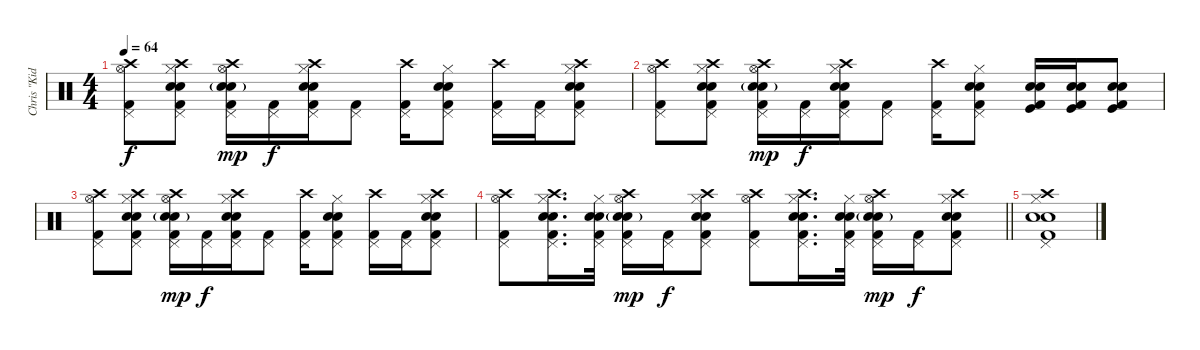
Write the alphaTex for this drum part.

\track ("Chris \"Kid\" Knapp" "Chris \"Kid") {instrument percussion}
\staff {score}
\articulation defaults
\ts (4 4)
\tempo 64
\clef neutral
\ks c
("Hi-Hat (open)" "Kick (hit) 2" "Pedal Hi-Hat (hit)" "Crash high (hit)").8{dy f} ("Snare (hit) 2" "Snare (hit) 2" "Hi-Hat (closed)" "Kick (hit) 2" "Pedal Hi-Hat (hit)" "Crash high (hit)").8 ("Snare (hit) 2"{g} "Snare (hit) 2"{g} "Hi-Hat (open)" "Kick (hit) 2" "Pedal Hi-Hat (hit)" "Crash high (hit)").16{dy mp} ("Kick (hit) 2" "Pedal Hi-Hat (hit)").16{dy f} ("Snare (hit) 2" "Snare (hit) 2" "Hi-Hat (closed)" "Kick (hit) 2" "Pedal Hi-Hat (hit)" "Crash high (hit)").16 ("Kick (hit) 2" "Pedal Hi-Hat (hit)").8 ("Kick (hit) 2" "Pedal Hi-Hat (hit)" "Crash high (hit)").16 ("Snare (hit) 2" "Snare (hit) 2" "Hi-Hat (closed)" "Kick (hit) 2" "Pedal Hi-Hat (hit)").8 ("Kick (hit) 2" "Pedal Hi-Hat (hit)" "Crash high (hit)").16 ("Kick (hit) 2" "Pedal Hi-Hat (hit)").16 ("Snare (hit) 2" "Snare (hit) 2" "Hi-Hat (closed)" "Kick (hit) 2" "Pedal Hi-Hat (hit)" "Crash high (hit)").8 |
("Hi-Hat (open)" "Kick (hit) 2" "Pedal Hi-Hat (hit)" "Crash high (hit)").8 ("Snare (hit) 2" "Snare (hit) 2" "Hi-Hat (closed)" "Kick (hit) 2" "Pedal Hi-Hat (hit)" "Crash high (hit)").8 ("Snare (hit) 2"{g} "Snare (hit) 2"{g} "Hi-Hat (open)" "Kick (hit) 2" "Pedal Hi-Hat (hit)" "Crash high (hit)").16{dy mp} ("Kick (hit) 2" "Pedal Hi-Hat (hit)").16{dy f} ("Snare (hit) 2" "Snare (hit) 2" "Hi-Hat (closed)" "Kick (hit) 2" "Pedal Hi-Hat (hit)" "Crash high (hit)").16 ("Kick (hit) 2" "Pedal Hi-Hat (hit)").8 ("Kick (hit) 2" "Pedal Hi-Hat (hit)" "Crash high (hit)").16 ("Snare (hit) 2" "Snare (hit) 2" "Hi-Hat (closed)" "Kick (hit) 2" "Pedal Hi-Hat (hit)").8 ("Snare (hit) 2" "Snare (hit) 2" "Kick (hit) 2" "Kick (hit)").16 ("Electric Snare (hit)" "Electric Snare (hit)" "Kick (hit) 2" "Kick (hit)").16 ("Snare (hit) 2" "Snare (hit) 2" "Kick (hit) 2" "Kick (hit)").8 |
("Hi-Hat (open)" "Kick (hit) 2" "Pedal Hi-Hat (hit)" "Crash high (hit)").8 ("Snare (hit) 2" "Snare (hit) 2" "Hi-Hat (closed)" "Kick (hit) 2" "Pedal Hi-Hat (hit)" "Crash high (hit)").8 ("Snare (hit) 2"{g} "Snare (hit) 2"{g} "Hi-Hat (open)" "Kick (hit) 2" "Pedal Hi-Hat (hit)" "Crash high (hit)").16{dy mp} ("Kick (hit) 2" "Pedal Hi-Hat (hit)").16{dy f} ("Snare (hit) 2" "Snare (hit) 2" "Hi-Hat (closed)" "Kick (hit) 2" "Pedal Hi-Hat (hit)" "Crash high (hit)").16 ("Kick (hit) 2" "Pedal Hi-Hat (hit)").8 ("Kick (hit) 2" "Pedal Hi-Hat (hit)" "Crash high (hit)").16 ("Snare (hit) 2" "Snare (hit) 2" "Hi-Hat (closed)" "Kick (hit) 2" "Pedal Hi-Hat (hit)").8 ("Kick (hit) 2" "Pedal Hi-Hat (hit)" "Crash high (hit)").16 ("Kick (hit) 2" "Pedal Hi-Hat (hit)").16 ("Snare (hit) 2" "Snare (hit) 2" "Hi-Hat (closed)" "Kick (hit) 2" "Pedal Hi-Hat (hit)" "Crash high (hit)").8 |
\barLineRight lightlight
("Hi-Hat (open)" "Kick (hit) 2" "Pedal Hi-Hat (hit)" "Crash high (hit)").8 ("Snare (hit) 2" "Snare (hit) 2" "Hi-Hat (closed)" "Kick (hit) 2" "Pedal Hi-Hat (hit)" "Crash high (hit)").16{d} ("Snare (hit) 2" "Snare (hit) 2" "Hi-Hat (closed)" "Kick (hit) 2" "Pedal Hi-Hat (hit)").32 ("Snare (hit) 2"{g} "Snare (hit) 2"{g} "Hi-Hat (open)" "Kick (hit) 2" "Pedal Hi-Hat (hit)" "Crash high (hit)").16{dy mp} ("Kick (hit) 2" "Pedal Hi-Hat (hit)").16{dy f} ("Snare (hit) 2" "Snare (hit) 2" "Hi-Hat (closed)" "Kick (hit) 2" "Pedal Hi-Hat (hit)" "Crash high (hit)").8 ("Hi-Hat (open)" "Kick (hit) 2" "Pedal Hi-Hat (hit)" "Crash high (hit)").8 ("Snare (hit) 2" "Snare (hit) 2" "Hi-Hat (closed)" "Kick (hit) 2" "Pedal Hi-Hat (hit)" "Crash high (hit)").16{d} ("Snare (hit) 2" "Snare (hit) 2" "Hi-Hat (closed)" "Kick (hit) 2" "Pedal Hi-Hat (hit)").32 ("Snare (hit) 2"{g} "Snare (hit) 2"{g} "Hi-Hat (open)" "Kick (hit) 2" "Pedal Hi-Hat (hit)" "Crash high (hit)").16{dy mp} ("Kick (hit) 2" "Pedal Hi-Hat (hit)").16{dy f} ("Snare (hit) 2" "Snare (hit) 2" "Hi-Hat (closed)" "Kick (hit) 2" "Pedal Hi-Hat (hit)" "Crash high (hit)").8 |
("Snare (hit) 2" "Snare (hit) 2" "Hi-Hat (closed)" "Kick (hit) 2" "Pedal Hi-Hat (hit)" "Crash high (hit)").1
